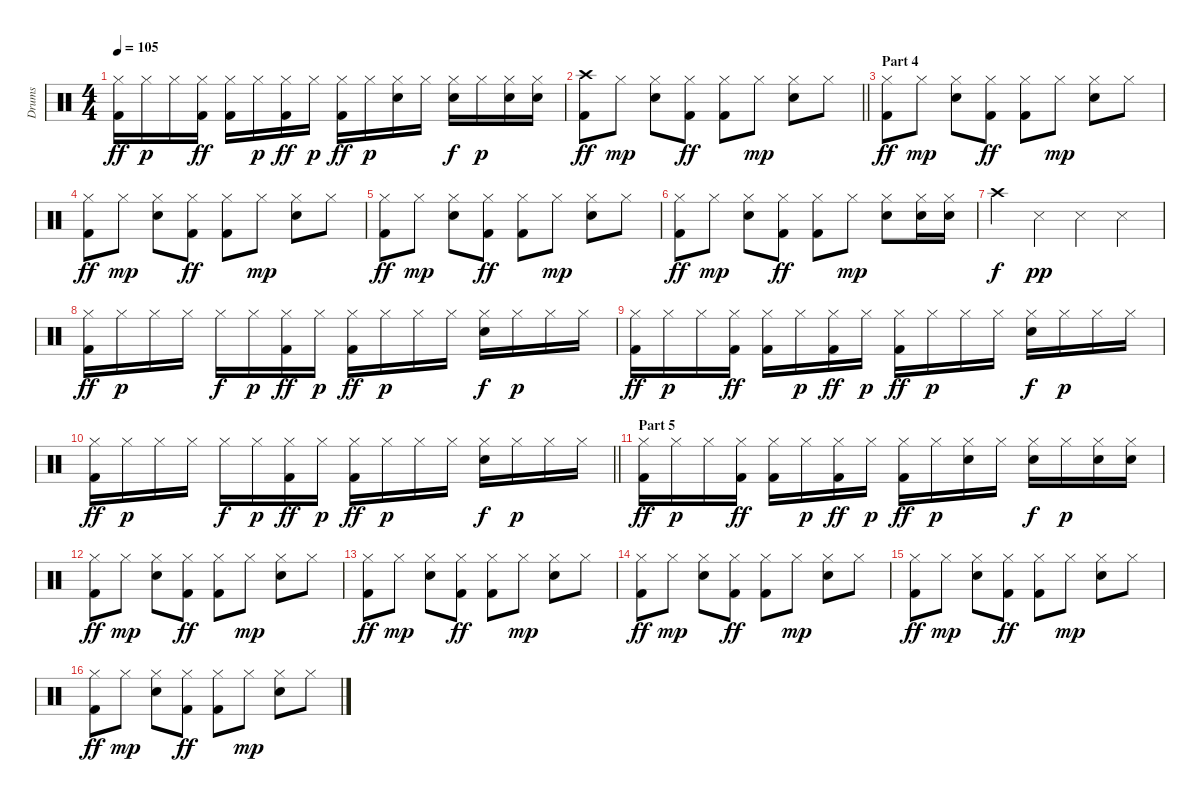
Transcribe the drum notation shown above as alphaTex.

\track ("Drums" "Drums") {instrument percussion}
\staff {score}
\articulation defaults
\ts (4 4)
\tempo 105
\clef neutral
\ks c
("Hi-Hat (closed)" "Kick (hit) 2").16{dy ff} "Hi-Hat (closed)".16{dy p} "Hi-Hat (closed)".16 ("Hi-Hat (closed)" "Kick (hit) 2").16{dy ff} ("Hi-Hat (closed)" "Kick (hit) 2").16 "Hi-Hat (closed)".16{dy p} ("Hi-Hat (closed)" "Kick (hit) 2").16{dy ff} "Hi-Hat (closed)".16{dy p} ("Hi-Hat (closed)" "Kick (hit) 2").16{dy ff} "Hi-Hat (closed)".16{dy p} ("Hi-Hat (closed)" "Electric Snare (hit)").16 "Hi-Hat (closed)".16 ("Hi-Hat (closed)" "Electric Snare (hit)").16{dy f} "Hi-Hat (closed)".16{dy p} ("Hi-Hat (closed)" "Electric Snare (hit)").16 ("Hi-Hat (closed)" "Electric Snare (hit)").16 |
\barLineRight lightlight
("Crash high (hit)" "Kick (hit) 2").8{dy ff} "Hi-Hat (closed)".8{dy mp} ("Hi-Hat (closed)" "Electric Snare (hit)").8 ("Hi-Hat (closed)" "Kick (hit) 2").8{dy ff} ("Hi-Hat (closed)" "Kick (hit) 2").8 "Hi-Hat (closed)".8{dy mp} ("Hi-Hat (closed)" "Electric Snare (hit)").8 "Hi-Hat (closed)".8 |
\section ("" "Part 4")
("Hi-Hat (closed)" "Kick (hit) 2").8{dy ff} "Hi-Hat (closed)".8{dy mp} ("Hi-Hat (closed)" "Electric Snare (hit)").8 ("Hi-Hat (closed)" "Kick (hit) 2").8{dy ff} ("Hi-Hat (closed)" "Kick (hit) 2").8 "Hi-Hat (closed)".8{dy mp} ("Hi-Hat (closed)" "Electric Snare (hit)").8 "Hi-Hat (closed)".8 |
("Hi-Hat (closed)" "Kick (hit) 2").8{dy ff} "Hi-Hat (closed)".8{dy mp} ("Hi-Hat (closed)" "Electric Snare (hit)").8 ("Hi-Hat (closed)" "Kick (hit) 2").8{dy ff} ("Hi-Hat (closed)" "Kick (hit) 2").8 "Hi-Hat (closed)".8{dy mp} ("Hi-Hat (closed)" "Electric Snare (hit)").8 "Hi-Hat (closed)".8 |
("Hi-Hat (closed)" "Kick (hit) 2").8{dy ff} "Hi-Hat (closed)".8{dy mp} ("Hi-Hat (closed)" "Electric Snare (hit)").8 ("Hi-Hat (closed)" "Kick (hit) 2").8{dy ff} ("Hi-Hat (closed)" "Kick (hit) 2").8 "Hi-Hat (closed)".8{dy mp} ("Hi-Hat (closed)" "Electric Snare (hit)").8 "Hi-Hat (closed)".8 |
("Hi-Hat (closed)" "Kick (hit) 2").8{dy ff} "Hi-Hat (closed)".8{dy mp} ("Hi-Hat (closed)" "Electric Snare (hit)").8 ("Hi-Hat (closed)" "Kick (hit) 2").8{dy ff} ("Hi-Hat (closed)" "Kick (hit) 2").8 "Hi-Hat (closed)".8{dy mp} ("Hi-Hat (closed)" "Electric Snare (hit)").8 ("Hi-Hat (closed)" "Electric Snare (hit)").16 ("Hi-Hat (closed)" "Electric Snare (hit)").16 |
"Crash high (hit)".4{dy f} "Snare (side stick) 3".4{dy pp} "Snare (side stick) 3".4 "Snare (side stick) 3".4 |
("Hi-Hat (closed)" "Kick (hit) 2").16{dy ff} "Hi-Hat (closed)".16{dy p} "Hi-Hat (closed)".16 "Hi-Hat (closed)".16 "Hi-Hat (closed)".16{dy f} "Hi-Hat (closed)".16{dy p} ("Hi-Hat (closed)" "Kick (hit) 2").16{dy ff} "Hi-Hat (closed)".16{dy p} ("Hi-Hat (closed)" "Kick (hit) 2").16{dy ff} "Hi-Hat (closed)".16{dy p} "Hi-Hat (closed)".16 "Hi-Hat (closed)".16 ("Hi-Hat (closed)" "Electric Snare (hit)").16{dy f} "Hi-Hat (closed)".16{dy p} "Hi-Hat (closed)".16 "Hi-Hat (closed)".16 |
("Hi-Hat (closed)" "Kick (hit) 2").16{dy ff} "Hi-Hat (closed)".16{dy p} "Hi-Hat (closed)".16 ("Hi-Hat (closed)" "Kick (hit) 2").16{dy ff} ("Hi-Hat (closed)" "Kick (hit) 2").16 "Hi-Hat (closed)".16{dy p} ("Hi-Hat (closed)" "Kick (hit) 2").16{dy ff} "Hi-Hat (closed)".16{dy p} ("Hi-Hat (closed)" "Kick (hit) 2").16{dy ff} "Hi-Hat (closed)".16{dy p} "Hi-Hat (closed)".16 "Hi-Hat (closed)".16 ("Hi-Hat (closed)" "Electric Snare (hit)").16{dy f} "Hi-Hat (closed)".16{dy p} "Hi-Hat (closed)".16 "Hi-Hat (closed)".16 |
\barLineRight lightlight
("Hi-Hat (closed)" "Kick (hit) 2").16{dy ff} "Hi-Hat (closed)".16{dy p} "Hi-Hat (closed)".16 "Hi-Hat (closed)".16 "Hi-Hat (closed)".16{dy f} "Hi-Hat (closed)".16{dy p} ("Hi-Hat (closed)" "Kick (hit) 2").16{dy ff} "Hi-Hat (closed)".16{dy p} ("Hi-Hat (closed)" "Kick (hit) 2").16{dy ff} "Hi-Hat (closed)".16{dy p} "Hi-Hat (closed)".16 "Hi-Hat (closed)".16 ("Hi-Hat (closed)" "Electric Snare (hit)").16{dy f} "Hi-Hat (closed)".16{dy p} "Hi-Hat (closed)".16 "Hi-Hat (closed)".16 |
\section ("" "Part 5")
("Hi-Hat (closed)" "Kick (hit) 2").16{dy ff} "Hi-Hat (closed)".16{dy p} "Hi-Hat (closed)".16 ("Hi-Hat (closed)" "Kick (hit) 2").16{dy ff} ("Hi-Hat (closed)" "Kick (hit) 2").16 "Hi-Hat (closed)".16{dy p} ("Hi-Hat (closed)" "Kick (hit) 2").16{dy ff} "Hi-Hat (closed)".16{dy p} ("Hi-Hat (closed)" "Kick (hit) 2").16{dy ff} "Hi-Hat (closed)".16{dy p} ("Hi-Hat (closed)" "Electric Snare (hit)").16 "Hi-Hat (closed)".16 ("Hi-Hat (closed)" "Electric Snare (hit)").16{dy f} "Hi-Hat (closed)".16{dy p} ("Hi-Hat (closed)" "Electric Snare (hit)").16 ("Hi-Hat (closed)" "Electric Snare (hit)").16 |
("Hi-Hat (closed)" "Kick (hit) 2").8{dy ff} "Hi-Hat (closed)".8{dy mp} ("Hi-Hat (closed)" "Electric Snare (hit)").8 ("Hi-Hat (closed)" "Kick (hit) 2").8{dy ff} ("Hi-Hat (closed)" "Kick (hit) 2").8 "Hi-Hat (closed)".8{dy mp} ("Hi-Hat (closed)" "Electric Snare (hit)").8 "Hi-Hat (closed)".8 |
("Hi-Hat (closed)" "Kick (hit) 2").8{dy ff} "Hi-Hat (closed)".8{dy mp} ("Hi-Hat (closed)" "Electric Snare (hit)").8 ("Hi-Hat (closed)" "Kick (hit) 2").8{dy ff} ("Hi-Hat (closed)" "Kick (hit) 2").8 "Hi-Hat (closed)".8{dy mp} ("Hi-Hat (closed)" "Electric Snare (hit)").8 "Hi-Hat (closed)".8 |
("Hi-Hat (closed)" "Kick (hit) 2").8{dy ff} "Hi-Hat (closed)".8{dy mp} ("Hi-Hat (closed)" "Electric Snare (hit)").8 ("Hi-Hat (closed)" "Kick (hit) 2").8{dy ff} ("Hi-Hat (closed)" "Kick (hit) 2").8 "Hi-Hat (closed)".8{dy mp} ("Hi-Hat (closed)" "Electric Snare (hit)").8 "Hi-Hat (closed)".8 |
("Hi-Hat (closed)" "Kick (hit) 2").8{dy ff} "Hi-Hat (closed)".8{dy mp} ("Hi-Hat (closed)" "Electric Snare (hit)").8 ("Hi-Hat (closed)" "Kick (hit) 2").8{dy ff} ("Hi-Hat (closed)" "Kick (hit) 2").8 "Hi-Hat (closed)".8{dy mp} ("Hi-Hat (closed)" "Electric Snare (hit)").8 "Hi-Hat (closed)".8 |
("Hi-Hat (closed)" "Kick (hit) 2").8{dy ff} "Hi-Hat (closed)".8{dy mp} ("Hi-Hat (closed)" "Electric Snare (hit)").8 ("Hi-Hat (closed)" "Kick (hit) 2").8{dy ff} ("Hi-Hat (closed)" "Kick (hit) 2").8 "Hi-Hat (closed)".8{dy mp} ("Hi-Hat (closed)" "Electric Snare (hit)").8 "Hi-Hat (closed)".8
